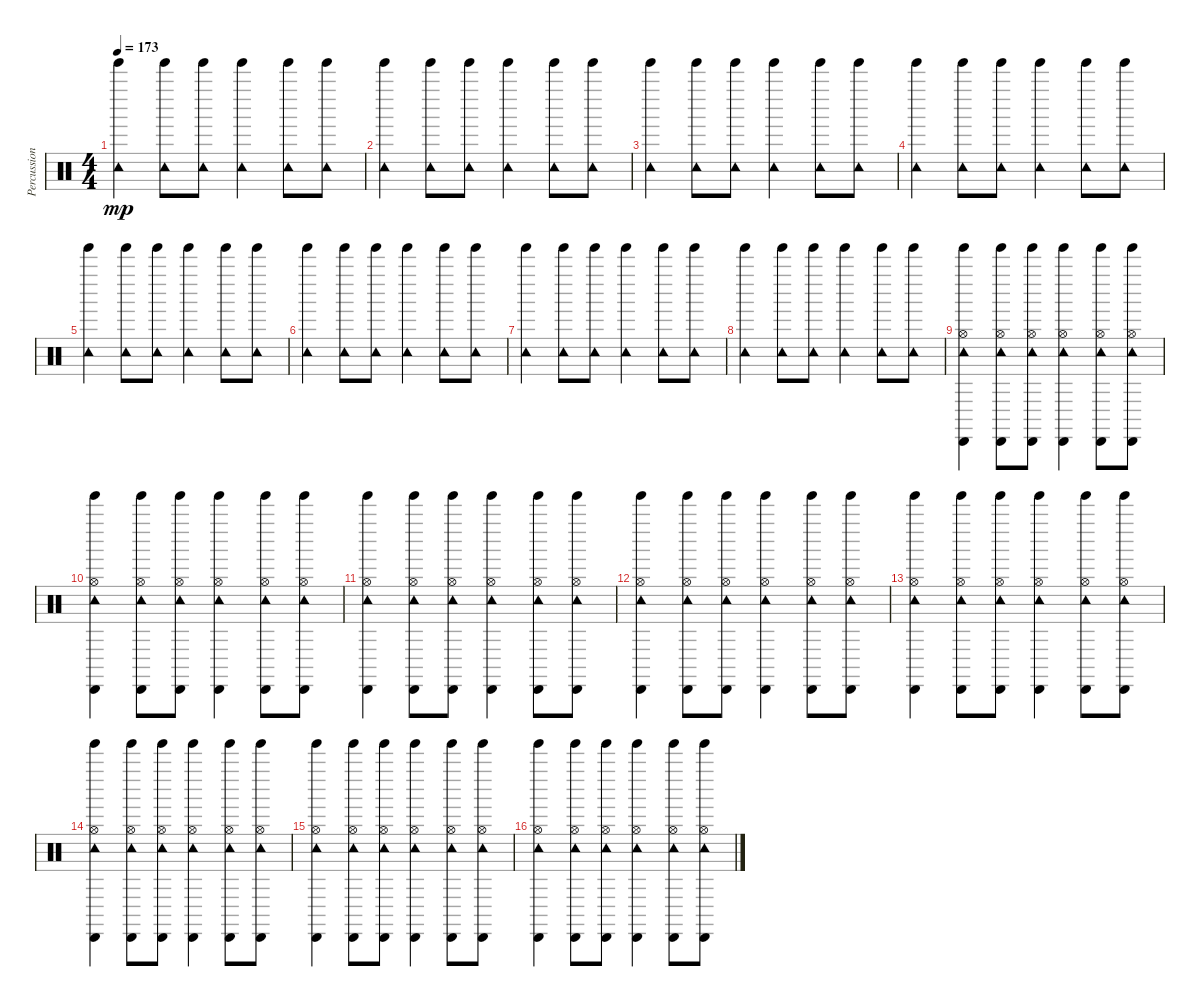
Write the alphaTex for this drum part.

\track ("Percussion" "Percussion") {instrument percussion}
\staff {score}
\articulation defaults
\ts (4 4)
\tempo 173
\clef neutral
\ks c
("Tambourine (hit)" "Tinkle Bell (hit)").4{dy mp} ("Tambourine (hit)" "Tinkle Bell (hit)").8 ("Tambourine (hit)" "Tinkle Bell (hit)").8 ("Tambourine (hit)" "Tinkle Bell (hit)").4 ("Tambourine (hit)" "Tinkle Bell (hit)").8 ("Tambourine (hit)" "Tinkle Bell (hit)").8 |
("Tambourine (hit)" "Tinkle Bell (hit)").4 ("Tambourine (hit)" "Tinkle Bell (hit)").8 ("Tambourine (hit)" "Tinkle Bell (hit)").8 ("Tambourine (hit)" "Tinkle Bell (hit)").4 ("Tambourine (hit)" "Tinkle Bell (hit)").8 ("Tambourine (hit)" "Tinkle Bell (hit)").8 |
("Tambourine (hit)" "Tinkle Bell (hit)").4 ("Tambourine (hit)" "Tinkle Bell (hit)").8 ("Tambourine (hit)" "Tinkle Bell (hit)").8 ("Tambourine (hit)" "Tinkle Bell (hit)").4 ("Tambourine (hit)" "Tinkle Bell (hit)").8 ("Tambourine (hit)" "Tinkle Bell (hit)").8 |
("Tambourine (hit)" "Tinkle Bell (hit)").4 ("Tambourine (hit)" "Tinkle Bell (hit)").8 ("Tambourine (hit)" "Tinkle Bell (hit)").8 ("Tambourine (hit)" "Tinkle Bell (hit)").4 ("Tambourine (hit)" "Tinkle Bell (hit)").8 ("Tambourine (hit)" "Tinkle Bell (hit)").8 |
("Tambourine (hit)" "Tinkle Bell (hit)").4 ("Tambourine (hit)" "Tinkle Bell (hit)").8 ("Tambourine (hit)" "Tinkle Bell (hit)").8 ("Tambourine (hit)" "Tinkle Bell (hit)").4 ("Tambourine (hit)" "Tinkle Bell (hit)").8 ("Tambourine (hit)" "Tinkle Bell (hit)").8 |
("Tambourine (hit)" "Tinkle Bell (hit)").4 ("Tambourine (hit)" "Tinkle Bell (hit)").8 ("Tambourine (hit)" "Tinkle Bell (hit)").8 ("Tambourine (hit)" "Tinkle Bell (hit)").4 ("Tambourine (hit)" "Tinkle Bell (hit)").8 ("Tambourine (hit)" "Tinkle Bell (hit)").8 |
("Tambourine (hit)" "Tinkle Bell (hit)").4 ("Tambourine (hit)" "Tinkle Bell (hit)").8 ("Tambourine (hit)" "Tinkle Bell (hit)").8 ("Tambourine (hit)" "Tinkle Bell (hit)").4 ("Tambourine (hit)" "Tinkle Bell (hit)").8 ("Tambourine (hit)" "Tinkle Bell (hit)").8 |
("Tambourine (hit)" "Tinkle Bell (hit)").4 ("Tambourine (hit)" "Tinkle Bell (hit)").8 ("Tambourine (hit)" "Tinkle Bell (hit)").8 ("Tambourine (hit)" "Tinkle Bell (hit)").4 ("Tambourine (hit)" "Tinkle Bell (hit)").8 ("Tambourine (hit)" "Tinkle Bell (hit)").8 |
("Cabasa (hit)" "Hi-Hat (open)" "Tambourine (hit)" "Tinkle Bell (hit)").4 ("Cabasa (hit)" "Hi-Hat (open)" "Tambourine (hit)" "Tinkle Bell (hit)").8 ("Cabasa (hit)" "Hi-Hat (open)" "Tambourine (hit)" "Tinkle Bell (hit)").8 ("Cabasa (hit)" "Hi-Hat (open)" "Tambourine (hit)" "Tinkle Bell (hit)").4 ("Cabasa (hit)" "Hi-Hat (open)" "Tambourine (hit)" "Tinkle Bell (hit)").8 ("Cabasa (hit)" "Hi-Hat (open)" "Tambourine (hit)" "Tinkle Bell (hit)").8 |
("Cabasa (hit)" "Hi-Hat (open)" "Tambourine (hit)" "Tinkle Bell (hit)").4 ("Cabasa (hit)" "Hi-Hat (open)" "Tambourine (hit)" "Tinkle Bell (hit)").8 ("Cabasa (hit)" "Hi-Hat (open)" "Tambourine (hit)" "Tinkle Bell (hit)").8 ("Cabasa (hit)" "Hi-Hat (open)" "Tambourine (hit)" "Tinkle Bell (hit)").4 ("Cabasa (hit)" "Hi-Hat (open)" "Tambourine (hit)" "Tinkle Bell (hit)").8 ("Cabasa (hit)" "Hi-Hat (open)" "Tambourine (hit)" "Tinkle Bell (hit)").8 |
("Cabasa (hit)" "Hi-Hat (open)" "Tambourine (hit)" "Tinkle Bell (hit)").4 ("Cabasa (hit)" "Hi-Hat (open)" "Tambourine (hit)" "Tinkle Bell (hit)").8 ("Cabasa (hit)" "Hi-Hat (open)" "Tambourine (hit)" "Tinkle Bell (hit)").8 ("Cabasa (hit)" "Hi-Hat (open)" "Tambourine (hit)" "Tinkle Bell (hit)").4 ("Cabasa (hit)" "Hi-Hat (open)" "Tambourine (hit)" "Tinkle Bell (hit)").8 ("Cabasa (hit)" "Hi-Hat (open)" "Tambourine (hit)" "Tinkle Bell (hit)").8 |
("Cabasa (hit)" "Hi-Hat (open)" "Tambourine (hit)" "Tinkle Bell (hit)").4 ("Cabasa (hit)" "Hi-Hat (open)" "Tambourine (hit)" "Tinkle Bell (hit)").8 ("Cabasa (hit)" "Hi-Hat (open)" "Tambourine (hit)" "Tinkle Bell (hit)").8 ("Cabasa (hit)" "Hi-Hat (open)" "Tambourine (hit)" "Tinkle Bell (hit)").4 ("Cabasa (hit)" "Hi-Hat (open)" "Tambourine (hit)" "Tinkle Bell (hit)").8 ("Cabasa (hit)" "Hi-Hat (open)" "Tambourine (hit)" "Tinkle Bell (hit)").8 |
("Cabasa (hit)" "Hi-Hat (open)" "Tambourine (hit)" "Tinkle Bell (hit)").4 ("Cabasa (hit)" "Hi-Hat (open)" "Tambourine (hit)" "Tinkle Bell (hit)").8 ("Cabasa (hit)" "Hi-Hat (open)" "Tambourine (hit)" "Tinkle Bell (hit)").8 ("Cabasa (hit)" "Hi-Hat (open)" "Tambourine (hit)" "Tinkle Bell (hit)").4 ("Cabasa (hit)" "Hi-Hat (open)" "Tambourine (hit)" "Tinkle Bell (hit)").8 ("Cabasa (hit)" "Hi-Hat (open)" "Tambourine (hit)" "Tinkle Bell (hit)").8 |
("Cabasa (hit)" "Hi-Hat (open)" "Tambourine (hit)" "Tinkle Bell (hit)").4 ("Cabasa (hit)" "Hi-Hat (open)" "Tambourine (hit)" "Tinkle Bell (hit)").8 ("Cabasa (hit)" "Hi-Hat (open)" "Tambourine (hit)" "Tinkle Bell (hit)").8 ("Cabasa (hit)" "Hi-Hat (open)" "Tambourine (hit)" "Tinkle Bell (hit)").4 ("Cabasa (hit)" "Hi-Hat (open)" "Tambourine (hit)" "Tinkle Bell (hit)").8 ("Cabasa (hit)" "Hi-Hat (open)" "Tambourine (hit)" "Tinkle Bell (hit)").8 |
("Cabasa (hit)" "Hi-Hat (open)" "Tambourine (hit)" "Tinkle Bell (hit)").4 ("Cabasa (hit)" "Hi-Hat (open)" "Tambourine (hit)" "Tinkle Bell (hit)").8 ("Cabasa (hit)" "Hi-Hat (open)" "Tambourine (hit)" "Tinkle Bell (hit)").8 ("Cabasa (hit)" "Hi-Hat (open)" "Tambourine (hit)" "Tinkle Bell (hit)").4 ("Cabasa (hit)" "Hi-Hat (open)" "Tambourine (hit)" "Tinkle Bell (hit)").8 ("Cabasa (hit)" "Hi-Hat (open)" "Tambourine (hit)" "Tinkle Bell (hit)").8 |
("Cabasa (hit)" "Hi-Hat (open)" "Tambourine (hit)" "Tinkle Bell (hit)").4 ("Cabasa (hit)" "Hi-Hat (open)" "Tambourine (hit)" "Tinkle Bell (hit)").8 ("Cabasa (hit)" "Hi-Hat (open)" "Tambourine (hit)" "Tinkle Bell (hit)").8 ("Cabasa (hit)" "Hi-Hat (open)" "Tambourine (hit)" "Tinkle Bell (hit)").4 ("Cabasa (hit)" "Hi-Hat (open)" "Tambourine (hit)" "Tinkle Bell (hit)").8 ("Cabasa (hit)" "Hi-Hat (open)" "Tambourine (hit)" "Tinkle Bell (hit)").8
